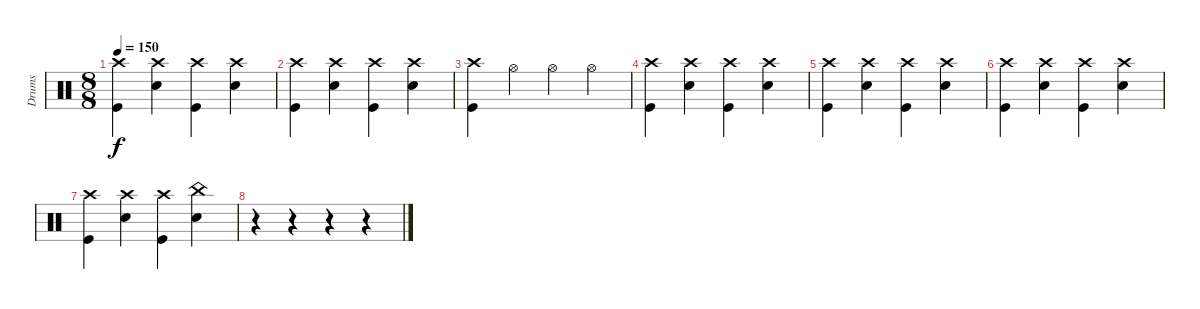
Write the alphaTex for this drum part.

\track ("Drums" "Drums") {instrument percussion}
\staff {score}
\articulation defaults
\ts (8 8)
\tempo 150
\clef neutral
\ks c
("Crash high (hit)" "Kick (hit)").4{dy f} ("Crash high (hit)" "Snare (hit) 2").4 ("Crash high (hit)" "Kick (hit)").4 ("Crash high (hit)" "Snare (hit) 2").4 |
("Crash high (hit)" "Kick (hit)").4 ("Crash high (hit)" "Snare (hit) 2").4 ("Crash high (hit)" "Kick (hit)").4 ("Crash high (hit)" "Snare (hit) 2").4 |
("Crash high (hit)" "Kick (hit)").4 "Hi-Hat (open)".4 "Hi-Hat (open)".4 "Hi-Hat (open)".4 |
("Crash high (hit)" "Kick (hit)").4 ("Crash high (hit)" "Snare (hit) 2").4 ("Crash high (hit)" "Kick (hit)").4 ("Crash high (hit)" "Snare (hit) 2").4 |
("Crash high (hit)" "Kick (hit)").4 ("Crash high (hit)" "Snare (hit) 2").4 ("Crash high (hit)" "Kick (hit)").4 ("Crash high (hit)" "Snare (hit) 2").4 |
("Crash high (hit)" "Kick (hit)").4 ("Crash high (hit)" "Snare (hit) 2").4 ("Crash high (hit)" "Kick (hit)").4 ("Crash high (hit)" "Snare (hit) 2").4 |
("Crash high (hit)" "Kick (hit)").4 ("Crash high (hit)" "Snare (hit) 2").4 ("Crash high (hit)" "Kick (hit)").4 ("China (hit)" "Snare (hit) 2").4 |
r.4 r.4 r.4 r.4
